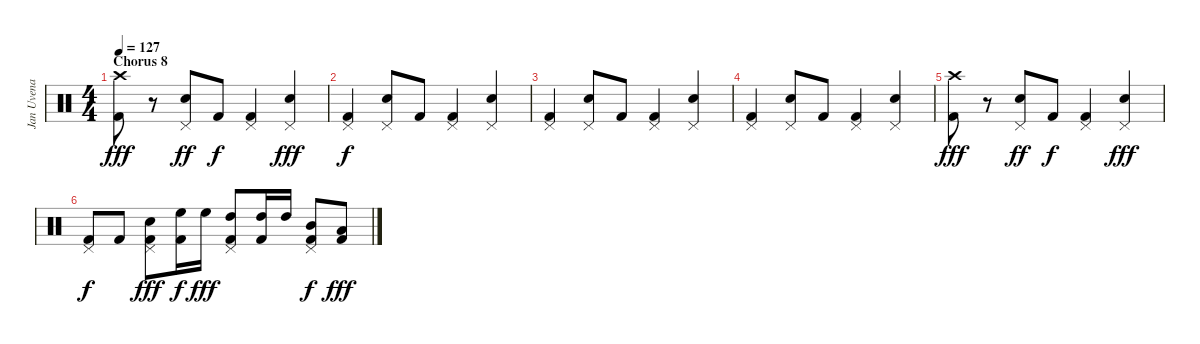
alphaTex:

\track ("Jan Uvena" "Jan Uvena") {instrument percussion}
\staff {score}
\articulation defaults
\ts (4 4)
\section ("" "Chorus 8")
\tempo 127
\clef neutral
\ks c
("Crash high (hit)" "Kick (hit) 2").8{dy fff} r.8 ("Pedal Hi-Hat (hit)" "Snare (hit) 2").8{dy ff} "Kick (hit) 2".8{dy f} ("Pedal Hi-Hat (hit)" "Kick (hit) 2").4 ("Pedal Hi-Hat (hit)" "Snare (hit) 2").4{dy fff} |
("Pedal Hi-Hat (hit)" "Kick (hit) 2").4{dy f} ("Pedal Hi-Hat (hit)" "Snare (hit) 2").8 "Kick (hit) 2".8 ("Pedal Hi-Hat (hit)" "Kick (hit) 2").4 ("Pedal Hi-Hat (hit)" "Snare (hit) 2").4 |
("Pedal Hi-Hat (hit)" "Kick (hit) 2").4 ("Pedal Hi-Hat (hit)" "Snare (hit) 2").8 "Kick (hit) 2".8 ("Pedal Hi-Hat (hit)" "Kick (hit) 2").4 ("Pedal Hi-Hat (hit)" "Snare (hit) 2").4 |
("Pedal Hi-Hat (hit)" "Kick (hit) 2").4 ("Pedal Hi-Hat (hit)" "Snare (hit) 2").8 "Kick (hit) 2".8 ("Pedal Hi-Hat (hit)" "Kick (hit) 2").4 ("Pedal Hi-Hat (hit)" "Snare (hit) 2").4 |
("Crash high (hit)" "Kick (hit) 2").8{dy fff} r.8 ("Pedal Hi-Hat (hit)" "Snare (hit) 2").8{dy ff} "Kick (hit) 2".8{dy f} ("Pedal Hi-Hat (hit)" "Kick (hit) 2").4 ("Pedal Hi-Hat (hit)" "Snare (hit) 2").4{dy fff} |
("Pedal Hi-Hat (hit)" "Kick (hit) 2").8{dy f} "Kick (hit) 2".8 ("Pedal Hi-Hat (hit)" "Snare (hit) 2" "Kick (hit) 2").8{dy fff} ("High Floor Tom (hit)" "Kick (hit) 2").16{dy f} "High Floor Tom (hit)".16{dy fff} ("High Tom (hit)" "Pedal Hi-Hat (hit)" "Kick (hit) 2").8 ("High Tom (hit)" "Kick (hit) 2").16 "High Tom (hit)".16 ("Mid Tom (hit)" "Pedal Hi-Hat (hit)" "Kick (hit) 2").8{dy f} ("Low Tom (hit)" "Kick (hit) 2").8{dy fff}
